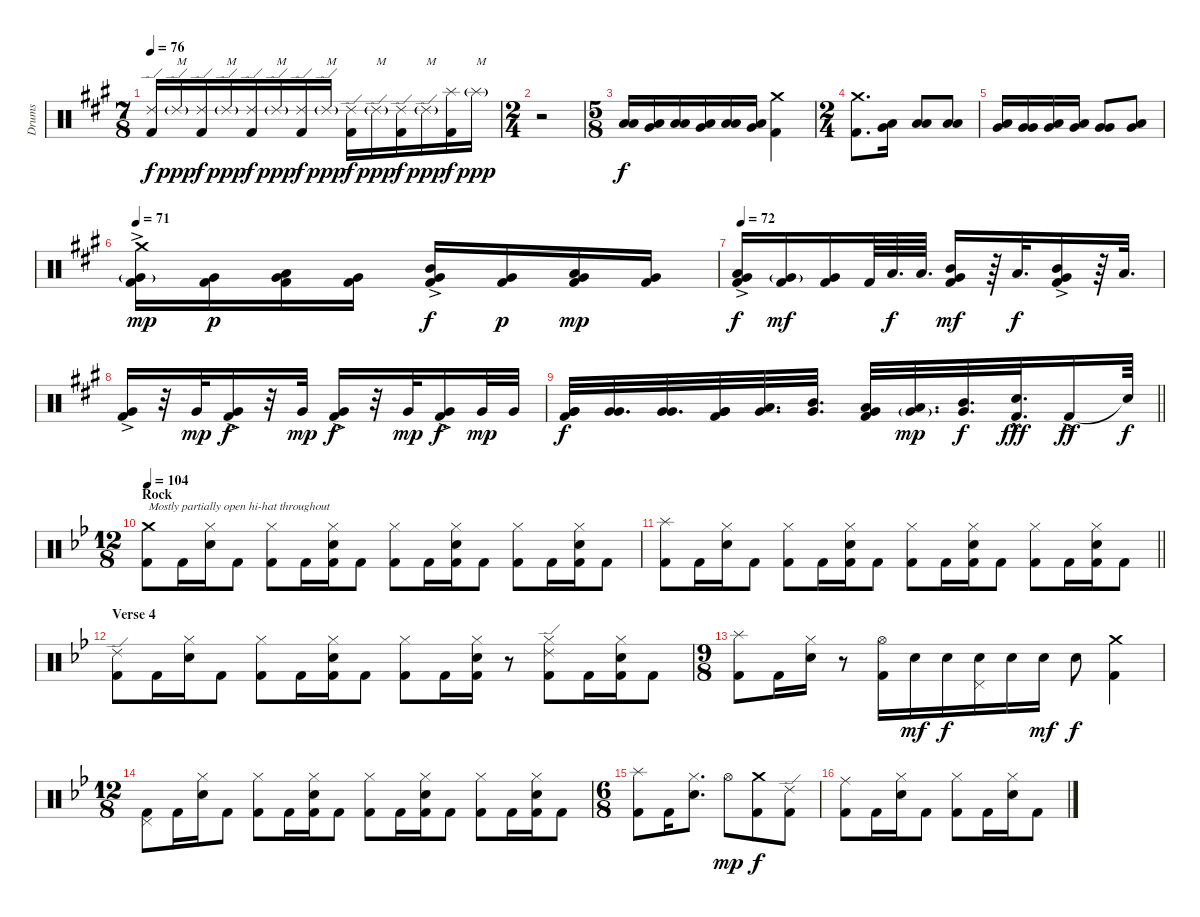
\track ("Drums" "Drums") {instrument percussion}
\staff {score}
\articulation defaults
\ts (7 8)
\tempo 76
\clef neutral
\ks a
("Ride (edge) 2" "Kick (hit) 2").16{dy f} "Ride (edge) 2"{g}.16{txt "M" dy ppp} ("Ride (edge) 2" "Kick (hit) 2").16{dy f} "Ride (edge) 2"{g}.16{txt "M" dy ppp} ("Ride (edge) 2" "Kick (hit) 2").16{dy f} "Ride (edge) 2"{g}.16{txt "M" dy ppp} ("Ride (edge) 2" "Kick (hit) 2").16{dy f} "Ride (edge) 2"{g}.16{txt "M" dy ppp} ("Ride (edge) 2" "Kick (hit) 2").16{dy f} "Ride (edge) 2"{g}.16{txt "M" dy ppp} ("Ride (edge) 2" "Kick (hit) 2").16{dy f} "Ride (edge) 2"{g}.16{txt "M" dy ppp} ("Splash (hit)" "Kick (hit) 2").16{dy f} "Splash (hit)"{g}.16{txt "M" dy ppp} |
\ts (2 4)
r.2 |
\ts (5 8)
("Low Tom (hit)" "Low Tom (hit)").16{dy f} ("Low Tom (hit)" "Very Low Tom (hit)").16 ("Low Tom (hit)" "Low Tom (hit)").16 ("Low Tom (hit)" "Very Low Tom (hit)").16 ("Low Tom (hit)" "Low Tom (hit)").16 ("Low Tom (hit)" "Very Low Tom (hit)").16 ("Crash medium (hit)" "Kick (hit) 2").4 |
\ts (2 4)
("Crash medium (hit)" "Kick (hit) 2").8{d} ("Low Tom (hit)" "Very Low Tom (hit)").16 ("Low Tom (hit)" "Low Tom (hit)").8 ("Low Tom (hit)" "Low Tom (hit)").8 |
("Low Tom (hit)" "Very Low Tom (hit)").16 ("Very Low Tom (hit)" "Very Low Tom (hit)").16 ("Low Tom (hit)" "Very Low Tom (hit)").16 ("Low Tom (hit)" "Very Low Tom (hit)").16 ("Very Low Tom (hit)" "Very Low Tom (hit)").8 ("Low Tom (hit)" "Very Low Tom (hit)").8 |
\tempo 71
("Crash medium (hit)" "Very Low Tom (hit)"{g} "Kick (hit) 2"{ac}).16{dy mp} ("Very Low Tom (hit)" "Kick (hit) 2").16{dy p} ("Low Tom (hit)" "Very Low Tom (hit)" "Kick (hit) 2").16 ("Very Low Tom (hit)" "Kick (hit) 2").16 ("Mid Tom (hit)" "Very Low Tom (hit)" "Kick (hit) 2"{ac}).16{dy f} ("Very Low Tom (hit)" "Kick (hit) 2").16{dy p} ("Low Tom (hit)" "Very Low Tom (hit)" "Kick (hit) 2").16{dy mp} ("Very Low Tom (hit)" "Kick (hit) 2").16 |
\tempo 72
("Low Tom (hit)" "Very Low Tom (hit)" "Kick (hit) 2"{ac}).16{dy f} ("Very Low Tom (hit)"{g} "Kick (hit) 2").16{dy mf} ("Very Low Tom (hit)" "Kick (hit) 2").16 "Kick (hit) 2".64 "Low Tom (hit)".64{d dy f} "Low Tom (hit)".64{d} ("Mid Tom (hit)" "Very Low Tom (hit)" "Kick (hit) 2").16{dy mf} r.64 "Low Tom (hit)".32{d dy f} ("Mid Tom (hit)" "Very Low Tom (hit)" "Kick (hit) 2"{ac}).16 r.64 "Low Tom (hit)".32{d} |
("Very Low Tom (hit)" "Kick (hit) 2"{ac}).16 r.32 "Very Low Tom (hit)".32{dy mp} ("Very Low Tom (hit)" "Kick (hit) 2"{ac}).16{dy f} r.32 "Very Low Tom (hit)".32{dy mp} ("Very Low Tom (hit)" "Kick (hit) 2"{ac}).16{dy f} r.32 "Very Low Tom (hit)".32{dy mp} ("Very Low Tom (hit)" "Kick (hit) 2"{ac}).16{dy f} "Very Low Tom (hit)".32{dy mp} "Very Low Tom (hit)".32 |
\barLineRight lightlight
("Very Low Tom (hit)" "Very Low Tom (hit)" "Kick (hit) 2").32{dy f} ("Very Low Tom (hit)" "Very Low Tom (hit)").32{d} ("Very Low Tom (hit)" "Very Low Tom (hit)").32{d} ("Very Low Tom (hit)" "Very Low Tom (hit)" "Kick (hit) 2").32 ("Low Tom (hit)" "Very Low Tom (hit)").32{d} ("Mid Tom (hit)" "Very Low Tom (hit)").32{d} ("Low Tom (hit)" "Very Low Tom (hit)" "Kick (hit) 2").32 ("Low Tom (hit)" "Very Low Tom (hit)"{g}).32{d dy mp} ("Mid Tom (hit)" "Very Low Tom (hit)").32{d dy f} ("Electric Snare (hit)"{hac} "Kick (hit) 2").32{d dy fff} "Kick (hit) 2"{ac}.16{dy ff} "Snare (hit)"{t}.64{dy f} |
\ts (12 8)
\section ("" "Rock")
\tempo 105
\tempo 104
\ks bb
("Crash medium (hit)" "Kick (hit) 2").8{txt "Mostly partially open hi-hat throughout"} "Kick (hit) 2".16 ("Electric Snare (hit)" "Hi-Hat (closed)").16 "Kick (hit) 2".8 ("Hi-Hat (closed)" "Kick (hit) 2").8 "Kick (hit) 2".16 ("Electric Snare (hit)" "Hi-Hat (closed)" "Kick (hit) 2").16 "Kick (hit) 2".8 ("Hi-Hat (closed)" "Kick (hit) 2").8 "Kick (hit) 2".16 ("Electric Snare (hit)" "Hi-Hat (closed)" "Kick (hit) 2").16 "Kick (hit) 2".8 ("Hi-Hat (closed)" "Kick (hit) 2").8 "Kick (hit) 2".16 ("Electric Snare (hit)" "Hi-Hat (closed)" "Kick (hit) 2").16 "Kick (hit) 2".8 |
\barLineRight lightlight
("Splash (hit)" "Kick (hit) 2").8 "Kick (hit) 2".16 ("Electric Snare (hit)" "Hi-Hat (closed)").16 "Kick (hit) 2".8 ("Hi-Hat (closed)" "Kick (hit) 2").8 "Kick (hit) 2".16 ("Electric Snare (hit)" "Hi-Hat (closed)" "Kick (hit) 2").16 "Kick (hit) 2".8 ("Hi-Hat (closed)" "Kick (hit) 2").8 "Kick (hit) 2".16 ("Electric Snare (hit)" "Hi-Hat (closed)" "Kick (hit) 2").16 "Kick (hit) 2".8 ("Hi-Hat (closed)" "Kick (hit) 2").8 "Kick (hit) 2".16 ("Electric Snare (hit)" "Hi-Hat (closed)" "Kick (hit) 2").16 "Kick (hit) 2".8 |
\section ("" "Verse 4")
("Ride (edge) 2" "Kick (hit) 2").8 "Kick (hit) 2".16 ("Electric Snare (hit)" "Hi-Hat (closed)").16 "Kick (hit) 2".8 ("Hi-Hat (closed)" "Kick (hit) 2").8 "Kick (hit) 2".16 ("Electric Snare (hit)" "Hi-Hat (closed)" "Kick (hit) 2").16 "Kick (hit) 2".8 ("Hi-Hat (closed)" "Kick (hit) 2").8 "Kick (hit) 2".16 ("Electric Snare (hit)" "Hi-Hat (closed)" "Kick (hit) 2").16 r.8 ("Ride (edge) 2" "Hi-Hat (closed)" "Kick (hit) 2").8 "Kick (hit) 2".16 ("Electric Snare (hit)" "Hi-Hat (closed)" "Kick (hit) 2").16 "Kick (hit) 2".8 |
\ts (9 8)
("Splash (hit)" "Kick (hit) 2").8 "Kick (hit) 2".16 ("Electric Snare (hit)" "Hi-Hat (closed)").16 r.8 ("Hi-Hat (open)" "Kick (hit) 2").16 "Electric Snare (hit)".16{dy mf} "Electric Snare (hit)".16{dy f} ("Electric Snare (hit)" "Pedal Hi-Hat (hit)").16 "Electric Snare (hit)".16 "Electric Snare (hit)".16{dy mf} "Electric Snare (hit)".8{dy f} ("Crash medium (hit)" "Kick (hit) 2").4 |
\ts (12 8)
("Pedal Hi-Hat (hit)" "Kick (hit) 2").8 "Kick (hit) 2".16 ("Electric Snare (hit)" "Hi-Hat (closed)").16 "Kick (hit) 2".8 ("Hi-Hat (closed)" "Kick (hit) 2").8 "Kick (hit) 2".16 ("Electric Snare (hit)" "Hi-Hat (closed)" "Kick (hit) 2").16 "Kick (hit) 2".8 ("Hi-Hat (closed)" "Kick (hit) 2").8 "Kick (hit) 2".16 ("Electric Snare (hit)" "Hi-Hat (closed)" "Kick (hit) 2").16 "Kick (hit) 2".8 ("Hi-Hat (closed)" "Kick (hit) 2").8 "Kick (hit) 2".16 ("Electric Snare (hit)" "Hi-Hat (closed)" "Kick (hit) 2").16 "Kick (hit) 2".8 |
\ts (6 8)
("Splash (hit)" "Kick (hit) 2").8 "Kick (hit) 2".16 ("Electric Snare (hit)" "Hi-Hat (closed)").8{d txt ""} "Hi-Hat (open)".8{dy mp} ("Crash medium (hit)" "Kick (hit) 2").8{dy f} ("Ride (edge) 2" "Kick (hit) 2").8 |
("Ride (middle)" "Kick (hit) 2").8 "Kick (hit) 2".16 ("Electric Snare (hit)" "Hi-Hat (closed)").16 "Kick (hit) 2".8 ("Hi-Hat (closed)" "Kick (hit) 2").8 "Kick (hit) 2".16 ("Electric Snare (hit)" "Hi-Hat (closed)").16 "Kick (hit) 2".8
